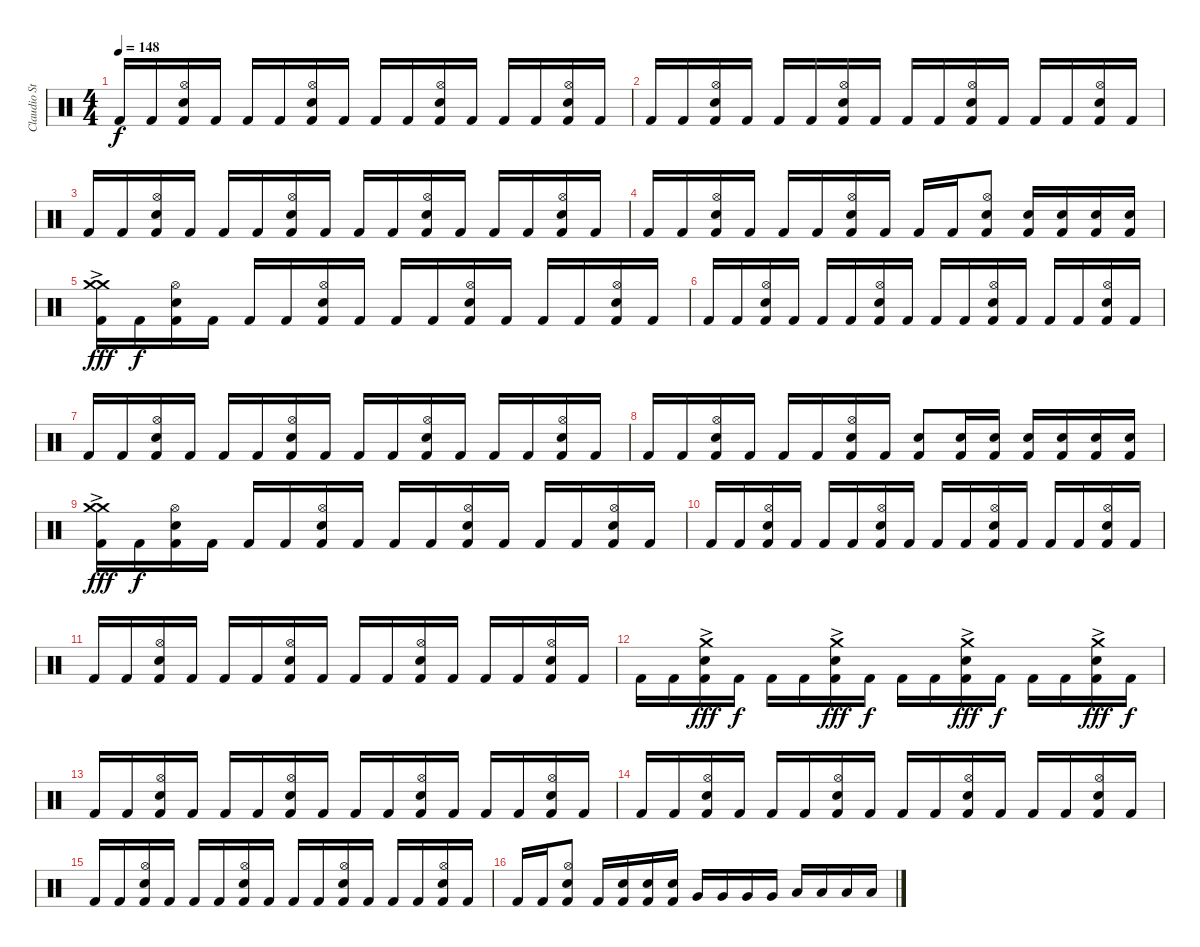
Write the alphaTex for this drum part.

\track ("Claudio Strunz" "Claudio St") {instrument percussion}
\staff {score}
\articulation defaults
\ts (4 4)
\tempo 148
\clef neutral
\ks c "Kick (hit) 2".16{dy f} "Kick (hit) 2".16
("Hi-Hat (open)" "Electric Snare (hit)" "Kick (hit) 2").16 "Kick (hit) 2".16 "Kick (hit) 2".16 "Kick (hit) 2".16 ("Hi-Hat (open)" "Electric Snare (hit)" "Kick (hit) 2").16 "Kick (hit) 2".16 "Kick (hit) 2".16 "Kick (hit) 2".16 ("Hi-Hat (open)" "Electric Snare (hit)" "Kick (hit) 2").16 "Kick (hit) 2".16 "Kick (hit) 2".16 "Kick (hit) 2".16 ("Hi-Hat (open)" "Electric Snare (hit)" "Kick (hit) 2").16 "Kick (hit) 2".16 |
"Kick (hit) 2".16 "Kick (hit) 2".16 ("Hi-Hat (open)" "Electric Snare (hit)" "Kick (hit) 2").16 "Kick (hit) 2".16 "Kick (hit) 2".16 "Kick (hit) 2".16 ("Hi-Hat (open)" "Electric Snare (hit)" "Kick (hit) 2").16 "Kick (hit) 2".16 "Kick (hit) 2".16 "Kick (hit) 2".16 ("Hi-Hat (open)" "Electric Snare (hit)" "Kick (hit) 2").16 "Kick (hit) 2".16 "Kick (hit) 2".16 "Kick (hit) 2".16 ("Hi-Hat (open)" "Electric Snare (hit)" "Kick (hit) 2").16 "Kick (hit) 2".16 |
"Kick (hit) 2".16 "Kick (hit) 2".16 ("Hi-Hat (open)" "Electric Snare (hit)" "Kick (hit) 2").16 "Kick (hit) 2".16 "Kick (hit) 2".16 "Kick (hit) 2".16 ("Hi-Hat (open)" "Electric Snare (hit)" "Kick (hit) 2").16 "Kick (hit) 2".16 "Kick (hit) 2".16 "Kick (hit) 2".16 ("Hi-Hat (open)" "Electric Snare (hit)" "Kick (hit) 2").16 "Kick (hit) 2".16 "Kick (hit) 2".16 "Kick (hit) 2".16 ("Hi-Hat (open)" "Electric Snare (hit)" "Kick (hit) 2").16 "Kick (hit) 2".16 |
"Kick (hit) 2".16 "Kick (hit) 2".16 ("Hi-Hat (open)" "Electric Snare (hit)" "Kick (hit) 2").16 "Kick (hit) 2".16 "Kick (hit) 2".16 "Kick (hit) 2".16 ("Hi-Hat (open)" "Electric Snare (hit)" "Kick (hit) 2").16 "Kick (hit) 2".16 "Kick (hit) 2".16 "Kick (hit) 2".16 ("Hi-Hat (open)" "Electric Snare (hit)" "Kick (hit) 2").8 ("Electric Snare (hit)" "Kick (hit) 2").16 ("Electric Snare (hit)" "Kick (hit) 2").16 ("Electric Snare (hit)" "Kick (hit) 2").16 ("Electric Snare (hit)" "Kick (hit) 2").16 |
("Crash medium (hit)"{ac} "Crash medium (hit)"{ac} "Kick (hit) 2").16{dy fff} "Kick (hit) 2".16{dy f} ("Hi-Hat (open)" "Electric Snare (hit)" "Kick (hit) 2").16 "Kick (hit) 2".16 "Kick (hit) 2".16 "Kick (hit) 2".16 ("Hi-Hat (open)" "Electric Snare (hit)" "Kick (hit) 2").16 "Kick (hit) 2".16 "Kick (hit) 2".16 "Kick (hit) 2".16 ("Hi-Hat (open)" "Electric Snare (hit)" "Kick (hit) 2").16 "Kick (hit) 2".16 "Kick (hit) 2".16 "Kick (hit) 2".16 ("Hi-Hat (open)" "Electric Snare (hit)" "Kick (hit) 2").16 "Kick (hit) 2".16 |
"Kick (hit) 2".16 "Kick (hit) 2".16 ("Hi-Hat (open)" "Electric Snare (hit)" "Kick (hit) 2").16 "Kick (hit) 2".16 "Kick (hit) 2".16 "Kick (hit) 2".16 ("Hi-Hat (open)" "Electric Snare (hit)" "Kick (hit) 2").16 "Kick (hit) 2".16 "Kick (hit) 2".16 "Kick (hit) 2".16 ("Hi-Hat (open)" "Electric Snare (hit)" "Kick (hit) 2").16 "Kick (hit) 2".16 "Kick (hit) 2".16 "Kick (hit) 2".16 ("Hi-Hat (open)" "Electric Snare (hit)" "Kick (hit) 2").16 "Kick (hit) 2".16 |
"Kick (hit) 2".16 "Kick (hit) 2".16 ("Hi-Hat (open)" "Electric Snare (hit)" "Kick (hit) 2").16 "Kick (hit) 2".16 "Kick (hit) 2".16 "Kick (hit) 2".16 ("Hi-Hat (open)" "Electric Snare (hit)" "Kick (hit) 2").16 "Kick (hit) 2".16 "Kick (hit) 2".16 "Kick (hit) 2".16 ("Hi-Hat (open)" "Electric Snare (hit)" "Kick (hit) 2").16 "Kick (hit) 2".16 "Kick (hit) 2".16 "Kick (hit) 2".16 ("Hi-Hat (open)" "Electric Snare (hit)" "Kick (hit) 2").16 "Kick (hit) 2".16 |
"Kick (hit) 2".16 "Kick (hit) 2".16 ("Hi-Hat (open)" "Electric Snare (hit)" "Kick (hit) 2").16 "Kick (hit) 2".16 "Kick (hit) 2".16 "Kick (hit) 2".16 ("Hi-Hat (open)" "Electric Snare (hit)" "Kick (hit) 2").16 "Kick (hit) 2".16 ("Electric Snare (hit)" "Kick (hit) 2").8 ("Electric Snare (hit)" "Kick (hit) 2").16 ("Electric Snare (hit)" "Kick (hit) 2").16 ("Electric Snare (hit)" "Kick (hit) 2").16 ("Electric Snare (hit)" "Kick (hit) 2").16 ("Electric Snare (hit)" "Kick (hit) 2").16 ("Electric Snare (hit)" "Kick (hit) 2").16 |
("Crash medium (hit)"{ac} "Crash medium (hit)"{ac} "Kick (hit) 2").16{dy fff} "Kick (hit) 2".16{dy f} ("Hi-Hat (open)" "Electric Snare (hit)" "Kick (hit) 2").16 "Kick (hit) 2".16 "Kick (hit) 2".16 "Kick (hit) 2".16 ("Hi-Hat (open)" "Electric Snare (hit)" "Kick (hit) 2").16 "Kick (hit) 2".16 "Kick (hit) 2".16 "Kick (hit) 2".16 ("Hi-Hat (open)" "Electric Snare (hit)" "Kick (hit) 2").16 "Kick (hit) 2".16 "Kick (hit) 2".16 "Kick (hit) 2".16 ("Hi-Hat (open)" "Electric Snare (hit)" "Kick (hit) 2").16 "Kick (hit) 2".16 |
"Kick (hit) 2".16 "Kick (hit) 2".16 ("Hi-Hat (open)" "Electric Snare (hit)" "Kick (hit) 2").16 "Kick (hit) 2".16 "Kick (hit) 2".16 "Kick (hit) 2".16 ("Hi-Hat (open)" "Electric Snare (hit)" "Kick (hit) 2").16 "Kick (hit) 2".16 "Kick (hit) 2".16 "Kick (hit) 2".16 ("Hi-Hat (open)" "Electric Snare (hit)" "Kick (hit) 2").16 "Kick (hit) 2".16 "Kick (hit) 2".16 "Kick (hit) 2".16 ("Hi-Hat (open)" "Electric Snare (hit)" "Kick (hit) 2").16 "Kick (hit) 2".16 |
"Kick (hit) 2".16 "Kick (hit) 2".16 ("Hi-Hat (open)" "Electric Snare (hit)" "Kick (hit) 2").16 "Kick (hit) 2".16 "Kick (hit) 2".16 "Kick (hit) 2".16 ("Hi-Hat (open)" "Electric Snare (hit)" "Kick (hit) 2").16 "Kick (hit) 2".16 "Kick (hit) 2".16 "Kick (hit) 2".16 ("Hi-Hat (open)" "Electric Snare (hit)" "Kick (hit) 2").16 "Kick (hit) 2".16 "Kick (hit) 2".16 "Kick (hit) 2".16 ("Hi-Hat (open)" "Electric Snare (hit)" "Kick (hit) 2").16 "Kick (hit) 2".16 |
"Kick (hit) 2".16 "Kick (hit) 2".16 ("Crash medium (hit)"{ac} "Electric Snare (hit)" "Kick (hit) 2").16{dy fff} "Kick (hit) 2".16{dy f} "Kick (hit) 2".16 "Kick (hit) 2".16 ("Crash medium (hit)"{ac} "Electric Snare (hit)" "Kick (hit) 2").16{dy fff} "Kick (hit) 2".16{dy f} "Kick (hit) 2".16 "Kick (hit) 2".16 ("Crash medium (hit)"{ac} "Electric Snare (hit)" "Kick (hit) 2").16{dy fff} "Kick (hit) 2".16{dy f} "Kick (hit) 2".16 "Kick (hit) 2".16 ("Crash medium (hit)"{ac} "Electric Snare (hit)" "Kick (hit) 2").16{dy fff} "Kick (hit) 2".16{dy f} |
"Kick (hit) 2".16 "Kick (hit) 2".16 ("Hi-Hat (open)" "Electric Snare (hit)" "Kick (hit) 2").16 "Kick (hit) 2".16 "Kick (hit) 2".16 "Kick (hit) 2".16 ("Hi-Hat (open)" "Electric Snare (hit)" "Kick (hit) 2").16 "Kick (hit) 2".16 "Kick (hit) 2".16 "Kick (hit) 2".16 ("Hi-Hat (open)" "Electric Snare (hit)" "Kick (hit) 2").16 "Kick (hit) 2".16 "Kick (hit) 2".16 "Kick (hit) 2".16 ("Hi-Hat (open)" "Electric Snare (hit)" "Kick (hit) 2").16 "Kick (hit) 2".16 |
"Kick (hit) 2".16 "Kick (hit) 2".16 ("Hi-Hat (open)" "Electric Snare (hit)" "Kick (hit) 2").16 "Kick (hit) 2".16 "Kick (hit) 2".16 "Kick (hit) 2".16 ("Hi-Hat (open)" "Electric Snare (hit)" "Kick (hit) 2").16 "Kick (hit) 2".16 "Kick (hit) 2".16 "Kick (hit) 2".16 ("Hi-Hat (open)" "Electric Snare (hit)" "Kick (hit) 2").16 "Kick (hit) 2".16 "Kick (hit) 2".16 "Kick (hit) 2".16 ("Hi-Hat (open)" "Electric Snare (hit)" "Kick (hit) 2").16 "Kick (hit) 2".16 |
"Kick (hit) 2".16 "Kick (hit) 2".16 ("Hi-Hat (open)" "Electric Snare (hit)" "Kick (hit) 2").16 "Kick (hit) 2".16 "Kick (hit) 2".16 "Kick (hit) 2".16 ("Hi-Hat (open)" "Electric Snare (hit)" "Kick (hit) 2").16 "Kick (hit) 2".16 "Kick (hit) 2".16 "Kick (hit) 2".16 ("Hi-Hat (open)" "Electric Snare (hit)" "Kick (hit) 2").16 "Kick (hit) 2".16 "Kick (hit) 2".16 "Kick (hit) 2".16 ("Hi-Hat (open)" "Electric Snare (hit)" "Kick (hit) 2").16 "Kick (hit) 2".16 |
"Kick (hit) 2".16 "Kick (hit) 2".16 ("Hi-Hat (open)" "Electric Snare (hit)" "Kick (hit) 2").8 "Kick (hit) 2".16 ("Electric Snare (hit)" "Kick (hit) 2").16 ("Electric Snare (hit)" "Kick (hit) 2").16 ("Electric Snare (hit)" "Kick (hit) 2").16 "Very Low Tom (hit)".16 "Very Low Tom (hit)".16 "Very Low Tom (hit)".16 "Very Low Tom (hit)".16 "Low Tom (hit)".16 "Low Tom (hit)".16 "Low Tom (hit)".16 "Low Tom (hit)".16
